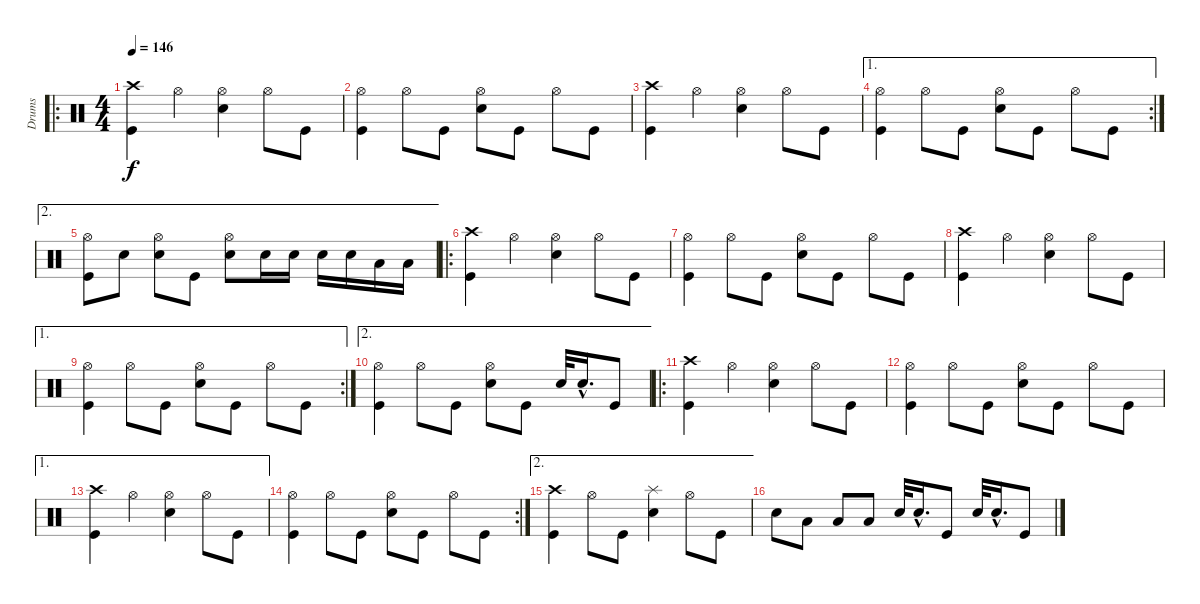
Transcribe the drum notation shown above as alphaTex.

\track ("Drums" "Drums") {instrument percussion}
\staff {score}
\articulation defaults
\ro
\ts (4 4)
\tempo 146
\clef neutral
\ks c
("Crash high (hit)" "Kick (hit)").4{dy f} "Hi-Hat (open)".4 ("Hi-Hat (open)" "Electric Snare (hit)").4 "Hi-Hat (open)".8 "Kick (hit)".8 |
("Hi-Hat (open)" "Kick (hit)").4 "Hi-Hat (open)".8 "Kick (hit)".8 ("Hi-Hat (open)" "Electric Snare (hit)").8 "Kick (hit)".8 "Hi-Hat (open)".8 "Kick (hit)".8 |
("Crash high (hit)" "Kick (hit)").4 "Hi-Hat (open)".4 ("Hi-Hat (open)" "Electric Snare (hit)").4 "Hi-Hat (open)".8 "Kick (hit)".8 |
\ae 1
\rc 2
("Hi-Hat (open)" "Kick (hit)").4 "Hi-Hat (open)".8 "Kick (hit)".8 ("Hi-Hat (open)" "Electric Snare (hit)").8 "Kick (hit)".8 "Hi-Hat (open)".8 "Kick (hit)".8 |
\ae 2
("Hi-Hat (open)" "Kick (hit)").8 "Electric Snare (hit)".8 ("Hi-Hat (open)" "Electric Snare (hit)").8 "Kick (hit)".8 ("Hi-Hat (open)" "Electric Snare (hit)").8 "Electric Snare (hit)".16 "Electric Snare (hit)".16 "Electric Snare (hit)".16 "Electric Snare (hit)".16 "Low Tom (hit)".16 "Low Tom (hit)".16 |
\ro
("Crash high (hit)" "Kick (hit)").4 "Hi-Hat (open)".4 ("Hi-Hat (open)" "Electric Snare (hit)").4 "Hi-Hat (open)".8 "Kick (hit)".8 |
("Hi-Hat (open)" "Kick (hit)").4 "Hi-Hat (open)".8 "Kick (hit)".8 ("Hi-Hat (open)" "Electric Snare (hit)").8 "Kick (hit)".8 "Hi-Hat (open)".8 "Kick (hit)".8 |
("Crash high (hit)" "Kick (hit)").4 "Hi-Hat (open)".4 ("Hi-Hat (open)" "Electric Snare (hit)").4 "Hi-Hat (open)".8 "Kick (hit)".8 |
\ae 1
\rc 2
("Hi-Hat (open)" "Kick (hit)").4 "Hi-Hat (open)".8 "Kick (hit)".8 ("Hi-Hat (open)" "Electric Snare (hit)").8 "Kick (hit)".8 "Hi-Hat (open)".8 "Kick (hit)".8 |
\ae 2
("Hi-Hat (open)" "Kick (hit)").4 "Hi-Hat (open)".8 "Kick (hit)".8 ("Hi-Hat (open)" "Electric Snare (hit)").8 "Kick (hit)".8 "Electric Snare (hit)".32 "Electric Snare (hit)"{hac}.16{d} "Kick (hit)".8 |
\ro
("Crash high (hit)" "Kick (hit)").4 "Hi-Hat (open)".4 ("Hi-Hat (open)" "Electric Snare (hit)").4 "Hi-Hat (open)".8 "Kick (hit)".8 |
("Hi-Hat (open)" "Kick (hit)").4 "Hi-Hat (open)".8 "Kick (hit)".8 ("Hi-Hat (open)" "Electric Snare (hit)").8 "Kick (hit)".8 "Hi-Hat (open)".8 "Kick (hit)".8 |
\ae 1
("Crash high (hit)" "Kick (hit)").4 "Hi-Hat (open)".4 ("Hi-Hat (open)" "Electric Snare (hit)").4 "Hi-Hat (open)".8 "Kick (hit)".8 |
\rc 2
("Hi-Hat (open)" "Kick (hit)").4 "Hi-Hat (open)".8 "Kick (hit)".8 ("Hi-Hat (open)" "Electric Snare (hit)").8 "Kick (hit)".8 "Hi-Hat (open)".8 "Kick (hit)".8 |
\ae 2
("Crash high (hit)" "Kick (hit)").4 "Hi-Hat (open)".8 "Kick (hit)".8 ("Splash (hit)" "Electric Snare (hit)").4 "Hi-Hat (open)".8 "Kick (hit)".8 |
"Electric Snare (hit)".8 "Low Tom (hit)".8 "Low Tom (hit)".8 "Low Tom (hit)".8 "Electric Snare (hit)".32 "Electric Snare (hit)"{hac}.16{d} "Kick (hit)".8 "Electric Snare (hit)".32 "Electric Snare (hit)"{hac}.16{d} "Kick (hit)".8
